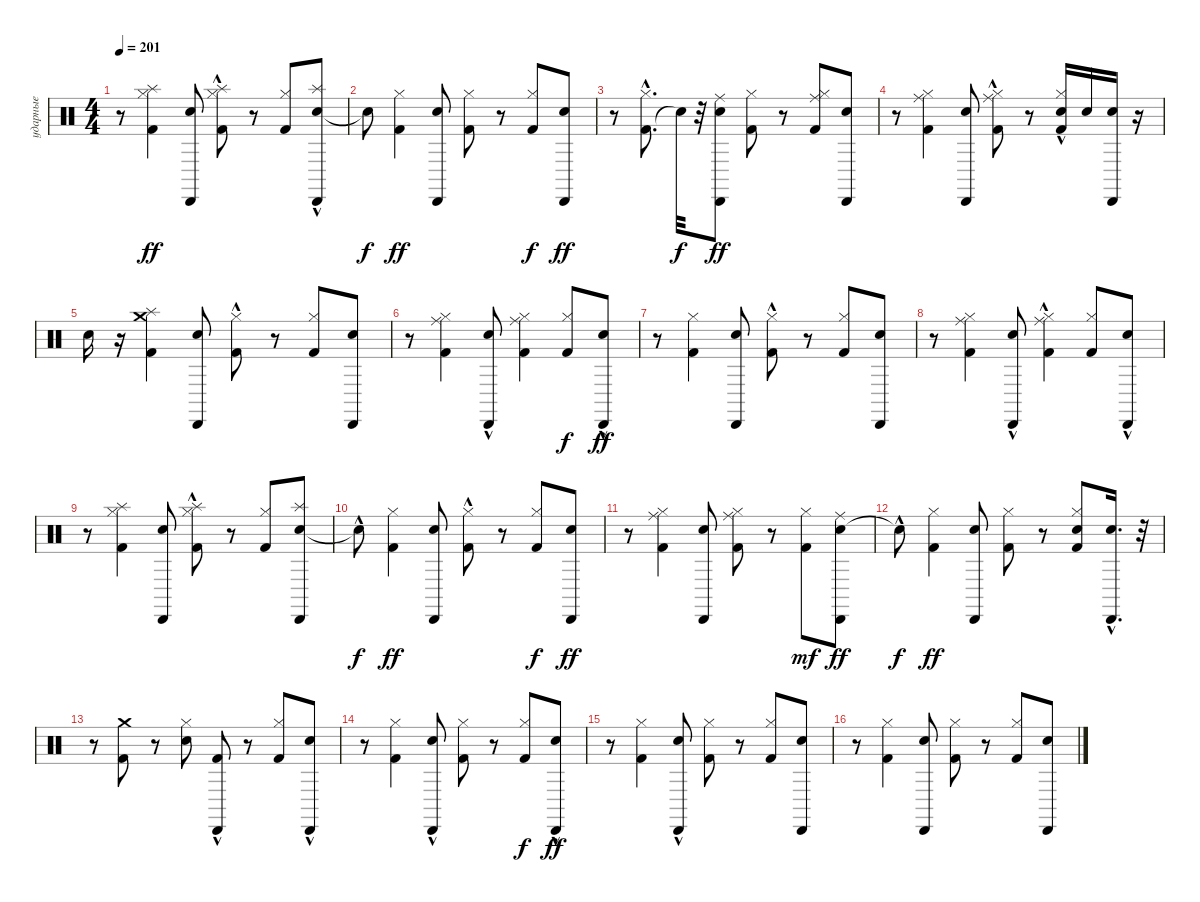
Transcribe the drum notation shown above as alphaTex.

\track ("ударные" "ударные") {instrument percussion}
\staff {score}
\articulation defaults
\ts (4 4)
\tempo 201
\clef neutral
\ks c
r.8{dy ff} ("Kick (hit) 2" "Hi-Hat (closed)" "Splash (hit)").4 ("Electric Snare (hit)" "Cabasa (hit)").8 ("Kick (hit) 2" "Hi-Hat (closed)" "Splash (hit)"{hac}).8 r.8 ("Kick (hit) 2" "Hi-Hat (closed)").8 ("Electric Snare (hit)" "Splash (hit)" "Cabasa (hit)"{hac}).8 |
"Snare (hit)"{t}.8{dy f} ("Kick (hit) 2" "Hi-Hat (closed)").4{dy ff} ("Electric Snare (hit)" "Cabasa (hit)").8 ("Kick (hit) 2" "Hi-Hat (closed)").8 r.8 ("Kick (hit) 2" "Hi-Hat (closed)").8{dy f} ("Electric Snare (hit)" "Cabasa (hit)").8{dy ff} |
r.8 ("Kick (hit) 2" "Hi-Hat (closed)"{hac}).8{d} "Snare (hit)"{t}.32{dy f} r.32 ("Electric Snare (hit)" "Ride (middle)" "Cabasa (hit)").8{dy ff} ("Kick (hit) 2" "Hi-Hat (closed)").8 r.8 ("Kick (hit) 2" "Hi-Hat (closed)" "Ride (middle)").8 ("Electric Snare (hit)" "Cabasa (hit)").8 |
r.8 ("Kick (hit) 2" "Hi-Hat (closed)" "Ride (middle)").4 ("Electric Snare (hit)" "Cabasa (hit)").8 ("Kick (hit) 2" "Hi-Hat (closed)"{hac} "Ride (middle)").8 r.8 ("Kick (hit) 2" "Electric Snare (hit)" "Hi-Hat (closed)"{hac}).16 "Electric Snare (hit)".16 ("Electric Snare (hit)" "Cabasa (hit)").16 r.16 |
"Electric Snare (hit)".16 r.16 ("Splash (hit)" "Kick (hit) 2" "Crash medium (hit)").4 ("Electric Snare (hit)" "Cabasa (hit)").8 ("Kick (hit) 2" "Hi-Hat (closed)"{hac}).8 r.8 ("Kick (hit) 2" "Hi-Hat (closed)").8 ("Electric Snare (hit)" "Cabasa (hit)").8 |
r.8 ("Kick (hit) 2" "Hi-Hat (closed)" "Ride (middle)").4 ("Electric Snare (hit)" "Cabasa (hit)"{hac}).8 ("Kick (hit) 2" "Hi-Hat (closed)" "Ride (middle)").4 ("Kick (hit) 2" "Hi-Hat (closed)").8{dy f} ("Electric Snare (hit)" "Cabasa (hit)"{hac}).8{dy ff} |
r.8 ("Kick (hit) 2" "Hi-Hat (closed)").4 ("Electric Snare (hit)" "Cabasa (hit)").8 ("Kick (hit) 2" "Hi-Hat (closed)"{hac}).8 r.8 ("Kick (hit) 2" "Hi-Hat (closed)").8 ("Electric Snare (hit)" "Cabasa (hit)").8 |
r.8 ("Kick (hit) 2" "Hi-Hat (closed)" "Ride (middle)").4 ("Electric Snare (hit)" "Cabasa (hit)"{hac}).8 ("Kick (hit) 2" "Hi-Hat (closed)"{hac} "Ride (middle)"{hac}).4 ("Kick (hit) 2" "Hi-Hat (closed)").8 ("Electric Snare (hit)" "Cabasa (hit)"{hac}).8 |
r.8 ("Kick (hit) 2" "Hi-Hat (closed)" "Splash (hit)").4 ("Electric Snare (hit)" "Cabasa (hit)").8 ("Kick (hit) 2" "Hi-Hat (closed)"{hac} "Splash (hit)").8 r.8 ("Kick (hit) 2" "Hi-Hat (closed)").8 ("Electric Snare (hit)" "Splash (hit)" "Cabasa (hit)").8 |
"Snare (hit)"{hac t}.8{dy f} ("Kick (hit) 2" "Hi-Hat (closed)").4{dy ff} ("Electric Snare (hit)" "Cabasa (hit)").8 ("Kick (hit) 2" "Hi-Hat (closed)"{hac}).8 r.8 ("Kick (hit) 2" "Hi-Hat (closed)").8{dy f} ("Electric Snare (hit)" "Cabasa (hit)").8{dy ff} |
r.8 ("Kick (hit) 2" "Hi-Hat (closed)" "Ride (middle)").4 ("Electric Snare (hit)" "Cabasa (hit)").8 ("Kick (hit) 2" "Hi-Hat (closed)" "Ride (middle)").8 r.8 ("Kick (hit) 2" "Hi-Hat (closed)").8{dy mf} ("Electric Snare (hit)" "Ride (middle)" "Cabasa (hit)").8{dy ff} |
"Snare (hit)"{hac t}.8{dy f} ("Kick (hit) 2" "Hi-Hat (closed)").4{dy ff} ("Electric Snare (hit)" "Cabasa (hit)").8 ("Kick (hit) 2" "Hi-Hat (closed)").8 r.8 ("Kick (hit) 2" "Electric Snare (hit)" "Hi-Hat (closed)").8 ("Electric Snare (hit)" "Cabasa (hit)"{hac}).16{d} r.32 |
r.8 ("Kick (hit) 2" "Crash medium (hit)").8 r.8 ("Electric Snare (hit)" "Hi-Hat (closed)").8 ("Kick (hit) 2" "Cabasa (hit)"{hac}).8 r.8 ("Kick (hit) 2" "Hi-Hat (closed)").8 ("Electric Snare (hit)" "Cabasa (hit)"{hac}).8 |
r.8 ("Kick (hit) 2" "Hi-Hat (closed)").4 ("Electric Snare (hit)" "Cabasa (hit)"{hac}).8 ("Kick (hit) 2" "Hi-Hat (closed)").8 r.8 ("Kick (hit) 2" "Hi-Hat (closed)").8{dy f} ("Electric Snare (hit)" "Cabasa (hit)"{hac}).8{dy ff} |
r.8 ("Kick (hit) 2" "Hi-Hat (closed)").4 ("Electric Snare (hit)" "Cabasa (hit)"{hac}).8 ("Kick (hit) 2" "Hi-Hat (closed)").8 r.8 ("Kick (hit) 2" "Hi-Hat (closed)").8 ("Electric Snare (hit)" "Cabasa (hit)").8 |
r.8 ("Kick (hit) 2" "Hi-Hat (closed)").4 ("Electric Snare (hit)" "Cabasa (hit)").8 ("Kick (hit) 2" "Hi-Hat (closed)").8 r.8 ("Kick (hit) 2" "Hi-Hat (closed)").8 ("Electric Snare (hit)" "Cabasa (hit)").8
